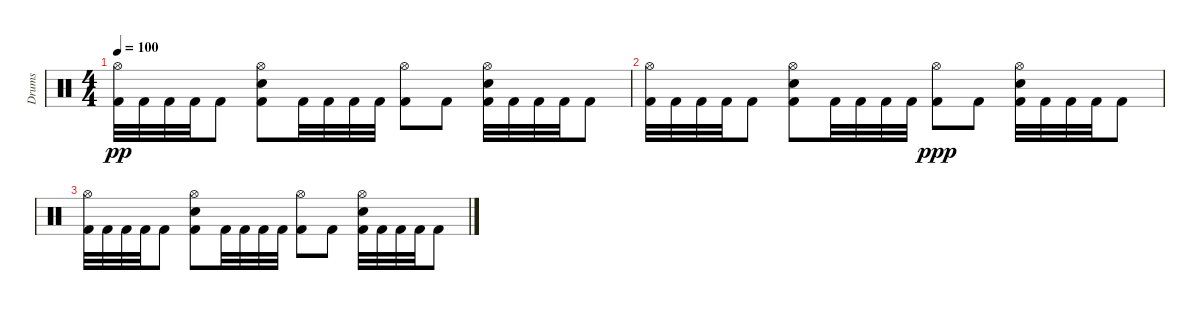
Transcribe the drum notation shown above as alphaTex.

\track ("Drums" "Drums") {instrument percussion}
\staff {score}
\articulation defaults
\ts (4 4)
\tempo 100
\clef neutral
\ks c
("Hi-Hat (open)" "Kick (hit) 2").32{dy pp} "Kick (hit) 2".32 "Kick (hit) 2".32 "Kick (hit) 2".32 "Kick (hit) 2".8 ("Hi-Hat (open)" "Snare (hit) 2" "Kick (hit) 2").8 "Kick (hit) 2".32 "Kick (hit) 2".32 "Kick (hit) 2".32 "Kick (hit) 2".32 ("Hi-Hat (open)" "Kick (hit) 2").8 "Kick (hit) 2".8 ("Hi-Hat (open)" "Snare (hit) 2" "Kick (hit) 2").32 "Kick (hit) 2".32 "Kick (hit) 2".32 "Kick (hit) 2".32 "Kick (hit) 2".8 |
("Hi-Hat (open)" "Kick (hit) 2").32 "Kick (hit) 2".32 "Kick (hit) 2".32 "Kick (hit) 2".32 "Kick (hit) 2".8 ("Hi-Hat (open)" "Snare (hit) 2" "Kick (hit) 2").8 "Kick (hit) 2".32 "Kick (hit) 2".32 "Kick (hit) 2".32 "Kick (hit) 2".32 ("Hi-Hat (open)" "Kick (hit) 2").8{dy ppp} "Kick (hit) 2".8 ("Hi-Hat (open)" "Snare (hit) 2" "Kick (hit) 2").32 "Kick (hit) 2".32 "Kick (hit) 2".32 "Kick (hit) 2".32 "Kick (hit) 2".8 |
("Hi-Hat (open)" "Kick (hit) 2").32 "Kick (hit) 2".32 "Kick (hit) 2".32 "Kick (hit) 2".32 "Kick (hit) 2".8 ("Hi-Hat (open)" "Snare (hit) 2" "Kick (hit) 2").8 "Kick (hit) 2".32 "Kick (hit) 2".32 "Kick (hit) 2".32 "Kick (hit) 2".32 ("Hi-Hat (open)" "Kick (hit) 2").8 "Kick (hit) 2".8 ("Hi-Hat (open)" "Snare (hit) 2" "Kick (hit) 2").32 "Kick (hit) 2".32 "Kick (hit) 2".32 "Kick (hit) 2".32 "Kick (hit) 2".8
